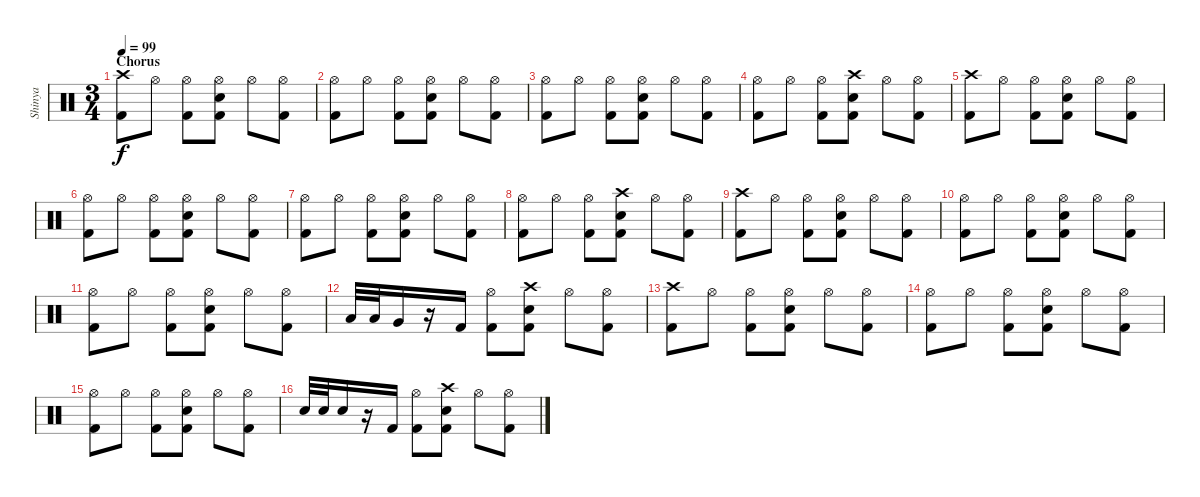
\track ("Shinya" "Shinya") {instrument percussion}
\staff {score}
\articulation defaults
\ts (3 4)
\section ("" "Chorus")
\tempo 99
\clef neutral
\ks c
("Crash high (hit)" "Kick (hit) 2").8{dy f} "Hi-Hat (open)".8 ("Hi-Hat (open)" "Kick (hit) 2").8 ("Hi-Hat (open)" "Snare (hit) 2" "Kick (hit) 2").8 "Hi-Hat (open)".8 ("Hi-Hat (open)" "Kick (hit) 2").8 |
("Hi-Hat (open)" "Kick (hit) 2").8 "Hi-Hat (open)".8 ("Hi-Hat (open)" "Kick (hit) 2").8 ("Hi-Hat (open)" "Snare (hit) 2" "Kick (hit) 2").8 "Hi-Hat (open)".8 ("Hi-Hat (open)" "Kick (hit) 2").8 |
("Hi-Hat (open)" "Kick (hit) 2").8 "Hi-Hat (open)".8 ("Hi-Hat (open)" "Kick (hit) 2").8 ("Hi-Hat (open)" "Snare (hit) 2" "Kick (hit) 2").8 "Hi-Hat (open)".8 ("Hi-Hat (open)" "Kick (hit) 2").8 |
("Hi-Hat (open)" "Kick (hit) 2").8 "Hi-Hat (open)".8 ("Hi-Hat (open)" "Kick (hit) 2").8 ("Crash high (hit)" "Snare (hit) 2" "Kick (hit) 2").8 "Hi-Hat (open)".8 ("Hi-Hat (open)" "Kick (hit) 2").8 |
("Crash high (hit)" "Kick (hit) 2").8 "Hi-Hat (open)".8 ("Hi-Hat (open)" "Kick (hit) 2").8 ("Hi-Hat (open)" "Snare (hit) 2" "Kick (hit) 2").8 "Hi-Hat (open)".8 ("Hi-Hat (open)" "Kick (hit) 2").8 |
("Hi-Hat (open)" "Kick (hit) 2").8 "Hi-Hat (open)".8 ("Hi-Hat (open)" "Kick (hit) 2").8 ("Hi-Hat (open)" "Snare (hit) 2" "Kick (hit) 2").8 "Hi-Hat (open)".8 ("Hi-Hat (open)" "Kick (hit) 2").8 |
("Hi-Hat (open)" "Kick (hit) 2").8 "Hi-Hat (open)".8 ("Hi-Hat (open)" "Kick (hit) 2").8 ("Hi-Hat (open)" "Snare (hit) 2" "Kick (hit) 2").8 "Hi-Hat (open)".8 ("Hi-Hat (open)" "Kick (hit) 2").8 |
("Hi-Hat (open)" "Kick (hit) 2").8 "Hi-Hat (open)".8 ("Hi-Hat (open)" "Kick (hit) 2").8 ("Crash high (hit)" "Snare (hit) 2" "Kick (hit) 2").8 "Hi-Hat (open)".8 ("Hi-Hat (open)" "Kick (hit) 2").8 |
("Crash high (hit)" "Kick (hit) 2").8 "Hi-Hat (open)".8 ("Hi-Hat (open)" "Kick (hit) 2").8 ("Hi-Hat (open)" "Snare (hit) 2" "Kick (hit) 2").8 "Hi-Hat (open)".8 ("Hi-Hat (open)" "Kick (hit) 2").8 |
("Hi-Hat (open)" "Kick (hit) 2").8 "Hi-Hat (open)".8 ("Hi-Hat (open)" "Kick (hit) 2").8 ("Hi-Hat (open)" "Snare (hit) 2" "Kick (hit) 2").8 "Hi-Hat (open)".8 ("Hi-Hat (open)" "Kick (hit) 2").8 |
("Hi-Hat (open)" "Kick (hit) 2").8 "Hi-Hat (open)".8 ("Hi-Hat (open)" "Kick (hit) 2").8 ("Hi-Hat (open)" "Snare (hit) 2" "Kick (hit) 2").8 "Hi-Hat (open)".8 ("Hi-Hat (open)" "Kick (hit) 2").8 |
"Low Tom (hit)".32 "Low Tom (hit)".32 "Very Low Tom (hit)".16 r.16 "Kick (hit) 2".16 ("Hi-Hat (open)" "Kick (hit) 2").8 ("Crash high (hit)" "Snare (hit) 2" "Kick (hit) 2").8 "Hi-Hat (open)".8 ("Hi-Hat (open)" "Kick (hit) 2").8 |
("Crash high (hit)" "Kick (hit) 2").8 "Hi-Hat (open)".8 ("Hi-Hat (open)" "Kick (hit) 2").8 ("Hi-Hat (open)" "Snare (hit) 2" "Kick (hit) 2").8 "Hi-Hat (open)".8 ("Hi-Hat (open)" "Kick (hit) 2").8 |
("Hi-Hat (open)" "Kick (hit) 2").8 "Hi-Hat (open)".8 ("Hi-Hat (open)" "Kick (hit) 2").8 ("Hi-Hat (open)" "Snare (hit) 2" "Kick (hit) 2").8 "Hi-Hat (open)".8 ("Hi-Hat (open)" "Kick (hit) 2").8 |
("Hi-Hat (open)" "Kick (hit) 2").8 "Hi-Hat (open)".8 ("Hi-Hat (open)" "Kick (hit) 2").8 ("Hi-Hat (open)" "Snare (hit) 2" "Kick (hit) 2").8 "Hi-Hat (open)".8 ("Hi-Hat (open)" "Kick (hit) 2").8 |
"Snare (hit) 2".32 "Snare (hit) 2".32 "Snare (hit) 2".16 r.16 "Kick (hit) 2".16 ("Hi-Hat (open)" "Kick (hit) 2").8 ("Crash high (hit)" "Snare (hit) 2" "Kick (hit) 2").8 "Hi-Hat (open)".8 ("Hi-Hat (open)" "Kick (hit) 2").8
